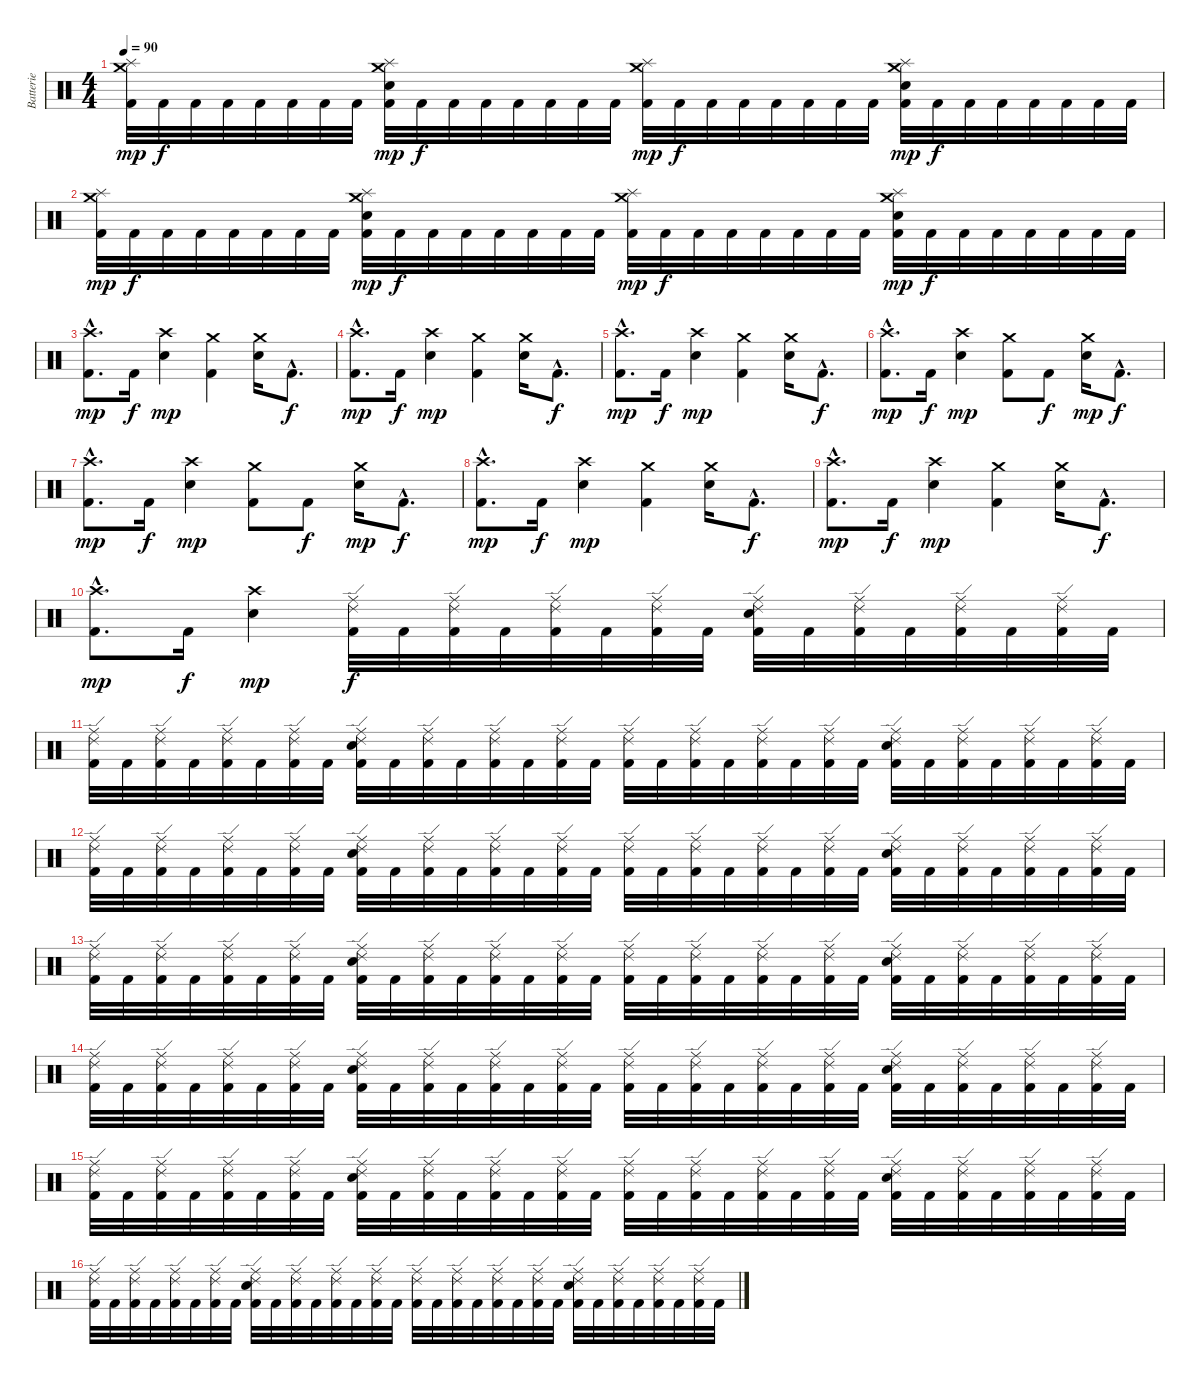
\track ("Batterie" "Batterie") {instrument percussion}
\staff {score}
\articulation defaults
\ts (4 4)
\tempo 90
\clef neutral
\ks c
("Splash (hit)" "Crash medium (hit)" "Kick (hit) 2").32{dy mp} "Kick (hit) 2".32{dy f} "Kick (hit) 2".32 "Kick (hit) 2".32 "Kick (hit) 2".32 "Kick (hit) 2".32 "Kick (hit) 2".32 "Kick (hit) 2".32 ("Splash (hit)" "Crash medium (hit)" "Electric Snare (hit)" "Kick (hit) 2").32{dy mp} "Kick (hit) 2".32{dy f} "Kick (hit) 2".32 "Kick (hit) 2".32 "Kick (hit) 2".32 "Kick (hit) 2".32 "Kick (hit) 2".32 "Kick (hit) 2".32 ("Splash (hit)" "Crash medium (hit)" "Kick (hit) 2").32{dy mp} "Kick (hit) 2".32{dy f} "Kick (hit) 2".32 "Kick (hit) 2".32 "Kick (hit) 2".32 "Kick (hit) 2".32 "Kick (hit) 2".32 "Kick (hit) 2".32 ("Splash (hit)" "Crash medium (hit)" "Electric Snare (hit)" "Kick (hit) 2").32{dy mp} "Kick (hit) 2".32{dy f} "Kick (hit) 2".32 "Kick (hit) 2".32 "Kick (hit) 2".32 "Kick (hit) 2".32 "Kick (hit) 2".32 "Kick (hit) 2".32 |
("Splash (hit)" "Crash medium (hit)" "Kick (hit) 2").32{dy mp} "Kick (hit) 2".32{dy f} "Kick (hit) 2".32 "Kick (hit) 2".32 "Kick (hit) 2".32 "Kick (hit) 2".32 "Kick (hit) 2".32 "Kick (hit) 2".32 ("Splash (hit)" "Crash medium (hit)" "Electric Snare (hit)" "Kick (hit) 2").32{dy mp} "Kick (hit) 2".32{dy f} "Kick (hit) 2".32 "Kick (hit) 2".32 "Kick (hit) 2".32 "Kick (hit) 2".32 "Kick (hit) 2".32 "Kick (hit) 2".32 ("Splash (hit)" "Crash medium (hit)" "Kick (hit) 2").32{dy mp} "Kick (hit) 2".32{dy f} "Kick (hit) 2".32 "Kick (hit) 2".32 "Kick (hit) 2".32 "Kick (hit) 2".32 "Kick (hit) 2".32 "Kick (hit) 2".32 ("Splash (hit)" "Crash medium (hit)" "Electric Snare (hit)" "Kick (hit) 2").32{dy mp} "Kick (hit) 2".32{dy f} "Kick (hit) 2".32 "Kick (hit) 2".32 "Kick (hit) 2".32 "Kick (hit) 2".32 "Kick (hit) 2".32 "Kick (hit) 2".32 |
("Crash high (hit)"{hac} "Kick (hit) 2"{hac}).8{d dy mp} "Kick (hit) 2".16{dy f} ("Crash high (hit)" "Electric Snare (hit)").4{dy mp} ("Crash medium (hit)" "Kick (hit) 2").4 ("Crash medium (hit)" "Electric Snare (hit)").16 "Kick (hit) 2"{hac}.8{d dy f} |
("Crash high (hit)"{hac} "Kick (hit) 2"{hac}).8{d dy mp} "Kick (hit) 2".16{dy f} ("Crash high (hit)" "Electric Snare (hit)").4{dy mp} ("Crash medium (hit)" "Kick (hit) 2").4 ("Crash medium (hit)" "Electric Snare (hit)").16 "Kick (hit) 2"{hac}.8{d dy f} |
("Crash high (hit)"{hac} "Kick (hit) 2"{hac}).8{d dy mp} "Kick (hit) 2".16{dy f} ("Crash high (hit)" "Electric Snare (hit)").4{dy mp} ("Crash medium (hit)" "Kick (hit) 2").4 ("Crash medium (hit)" "Electric Snare (hit)").16 "Kick (hit) 2"{hac}.8{d dy f} |
("Crash high (hit)"{hac} "Kick (hit) 2"{hac}).8{d dy mp} "Kick (hit) 2".16{dy f} ("Crash high (hit)" "Electric Snare (hit)").4{dy mp} ("Crash medium (hit)" "Kick (hit) 2").8 "Kick (hit) 2".8{dy f} ("Crash medium (hit)" "Electric Snare (hit)").16{dy mp} "Kick (hit) 2"{hac}.8{d dy f} |
("Crash high (hit)"{hac} "Kick (hit) 2"{hac}).8{d dy mp} "Kick (hit) 2".16{dy f} ("Crash high (hit)" "Electric Snare (hit)").4{dy mp} ("Crash medium (hit)" "Kick (hit) 2").8 "Kick (hit) 2".8{dy f} ("Crash medium (hit)" "Electric Snare (hit)").16{dy mp} "Kick (hit) 2"{hac}.8{d dy f} |
("Crash high (hit)"{hac} "Kick (hit) 2"{hac}).8{d dy mp} "Kick (hit) 2".16{dy f} ("Crash high (hit)" "Electric Snare (hit)").4{dy mp} ("Crash medium (hit)" "Kick (hit) 2").4 ("Crash medium (hit)" "Electric Snare (hit)").16 "Kick (hit) 2"{hac}.8{d dy f} |
("Crash high (hit)"{hac} "Kick (hit) 2"{hac}).8{d dy mp} "Kick (hit) 2".16{dy f} ("Crash high (hit)" "Electric Snare (hit)").4{dy mp} ("Crash medium (hit)" "Kick (hit) 2").4 ("Crash medium (hit)" "Electric Snare (hit)").16 "Kick (hit) 2"{hac}.8{d dy f} |
("Crash high (hit)"{hac} "Kick (hit) 2"{hac}).8{d dy mp} "Kick (hit) 2".16{dy f} ("Crash high (hit)" "Electric Snare (hit)").4{dy mp} ("Ride (edge) 2" "Ride (middle)" "Kick (hit) 2").32{dy f} "Kick (hit) 2".32 ("Ride (edge) 2" "Ride (middle)" "Kick (hit) 2").32 "Kick (hit) 2".32 ("Ride (edge) 2" "Ride (middle)" "Kick (hit) 2").32 "Kick (hit) 2".32 ("Ride (edge) 2" "Ride (middle)" "Kick (hit) 2").32 "Kick (hit) 2".32 ("Ride (edge) 2" "Ride (middle)" "Electric Snare (hit)" "Kick (hit) 2").32 "Kick (hit) 2".32 ("Ride (edge) 2" "Ride (middle)" "Kick (hit) 2").32 "Kick (hit) 2".32 ("Ride (edge) 2" "Ride (middle)" "Kick (hit) 2").32 "Kick (hit) 2".32 ("Ride (edge) 2" "Ride (middle)" "Kick (hit) 2").32 "Kick (hit) 2".32 |
("Ride (edge) 2" "Ride (middle)" "Kick (hit) 2").32 "Kick (hit) 2".32 ("Ride (edge) 2" "Ride (middle)" "Kick (hit) 2").32 "Kick (hit) 2".32 ("Ride (edge) 2" "Ride (middle)" "Kick (hit) 2").32 "Kick (hit) 2".32 ("Ride (edge) 2" "Ride (middle)" "Kick (hit) 2").32 "Kick (hit) 2".32 ("Ride (edge) 2" "Ride (middle)" "Electric Snare (hit)" "Kick (hit) 2").32 "Kick (hit) 2".32 ("Ride (edge) 2" "Ride (middle)" "Kick (hit) 2").32 "Kick (hit) 2".32 ("Ride (edge) 2" "Ride (middle)" "Kick (hit) 2").32 "Kick (hit) 2".32 ("Ride (edge) 2" "Ride (middle)" "Kick (hit) 2").32 "Kick (hit) 2".32 ("Ride (edge) 2" "Ride (middle)" "Kick (hit) 2").32 "Kick (hit) 2".32 ("Ride (edge) 2" "Ride (middle)" "Kick (hit) 2").32 "Kick (hit) 2".32 ("Ride (edge) 2" "Ride (middle)" "Kick (hit) 2").32 "Kick (hit) 2".32 ("Ride (edge) 2" "Ride (middle)" "Kick (hit) 2").32 "Kick (hit) 2".32 ("Ride (edge) 2" "Ride (middle)" "Electric Snare (hit)" "Kick (hit) 2").32 "Kick (hit) 2".32 ("Ride (edge) 2" "Ride (middle)" "Kick (hit) 2").32 "Kick (hit) 2".32 ("Ride (edge) 2" "Ride (middle)" "Kick (hit) 2").32 "Kick (hit) 2".32 ("Ride (edge) 2" "Ride (middle)" "Kick (hit) 2").32 "Kick (hit) 2".32 |
("Ride (edge) 2" "Ride (middle)" "Kick (hit) 2").32 "Kick (hit) 2".32 ("Ride (edge) 2" "Ride (middle)" "Kick (hit) 2").32 "Kick (hit) 2".32 ("Ride (edge) 2" "Ride (middle)" "Kick (hit) 2").32 "Kick (hit) 2".32 ("Ride (edge) 2" "Ride (middle)" "Kick (hit) 2").32 "Kick (hit) 2".32 ("Ride (edge) 2" "Ride (middle)" "Electric Snare (hit)" "Kick (hit) 2").32 "Kick (hit) 2".32 ("Ride (edge) 2" "Ride (middle)" "Kick (hit) 2").32 "Kick (hit) 2".32 ("Ride (edge) 2" "Ride (middle)" "Kick (hit) 2").32 "Kick (hit) 2".32 ("Ride (edge) 2" "Ride (middle)" "Kick (hit) 2").32 "Kick (hit) 2".32 ("Ride (edge) 2" "Ride (middle)" "Kick (hit) 2").32 "Kick (hit) 2".32 ("Ride (edge) 2" "Ride (middle)" "Kick (hit) 2").32 "Kick (hit) 2".32 ("Ride (edge) 2" "Ride (middle)" "Kick (hit) 2").32 "Kick (hit) 2".32 ("Ride (edge) 2" "Ride (middle)" "Kick (hit) 2").32 "Kick (hit) 2".32 ("Ride (edge) 2" "Ride (middle)" "Electric Snare (hit)" "Kick (hit) 2").32 "Kick (hit) 2".32 ("Ride (edge) 2" "Ride (middle)" "Kick (hit) 2").32 "Kick (hit) 2".32 ("Ride (edge) 2" "Ride (middle)" "Kick (hit) 2").32 "Kick (hit) 2".32 ("Ride (edge) 2" "Ride (middle)" "Kick (hit) 2").32 "Kick (hit) 2".32 |
("Ride (edge) 2" "Ride (middle)" "Kick (hit) 2").32 "Kick (hit) 2".32 ("Ride (edge) 2" "Ride (middle)" "Kick (hit) 2").32 "Kick (hit) 2".32 ("Ride (edge) 2" "Ride (middle)" "Kick (hit) 2").32 "Kick (hit) 2".32 ("Ride (edge) 2" "Ride (middle)" "Kick (hit) 2").32 "Kick (hit) 2".32 ("Ride (edge) 2" "Ride (middle)" "Electric Snare (hit)" "Kick (hit) 2").32 "Kick (hit) 2".32 ("Ride (edge) 2" "Ride (middle)" "Kick (hit) 2").32 "Kick (hit) 2".32 ("Ride (edge) 2" "Ride (middle)" "Kick (hit) 2").32 "Kick (hit) 2".32 ("Ride (edge) 2" "Ride (middle)" "Kick (hit) 2").32 "Kick (hit) 2".32 ("Ride (edge) 2" "Ride (middle)" "Kick (hit) 2").32 "Kick (hit) 2".32 ("Ride (edge) 2" "Ride (middle)" "Kick (hit) 2").32 "Kick (hit) 2".32 ("Ride (edge) 2" "Ride (middle)" "Kick (hit) 2").32 "Kick (hit) 2".32 ("Ride (edge) 2" "Ride (middle)" "Kick (hit) 2").32 "Kick (hit) 2".32 ("Ride (edge) 2" "Ride (middle)" "Electric Snare (hit)" "Kick (hit) 2").32 "Kick (hit) 2".32 ("Ride (edge) 2" "Ride (middle)" "Kick (hit) 2").32 "Kick (hit) 2".32 ("Ride (edge) 2" "Ride (middle)" "Kick (hit) 2").32 "Kick (hit) 2".32 ("Ride (edge) 2" "Ride (middle)" "Kick (hit) 2").32 "Kick (hit) 2".32 |
("Ride (edge) 2" "Ride (middle)" "Kick (hit) 2").32 "Kick (hit) 2".32 ("Ride (edge) 2" "Ride (middle)" "Kick (hit) 2").32 "Kick (hit) 2".32 ("Ride (edge) 2" "Ride (middle)" "Kick (hit) 2").32 "Kick (hit) 2".32 ("Ride (edge) 2" "Ride (middle)" "Kick (hit) 2").32 "Kick (hit) 2".32 ("Ride (edge) 2" "Ride (middle)" "Electric Snare (hit)" "Kick (hit) 2").32 "Kick (hit) 2".32 ("Ride (edge) 2" "Ride (middle)" "Kick (hit) 2").32 "Kick (hit) 2".32 ("Ride (edge) 2" "Ride (middle)" "Kick (hit) 2").32 "Kick (hit) 2".32 ("Ride (edge) 2" "Ride (middle)" "Kick (hit) 2").32 "Kick (hit) 2".32 ("Ride (edge) 2" "Ride (middle)" "Kick (hit) 2").32 "Kick (hit) 2".32 ("Ride (edge) 2" "Ride (middle)" "Kick (hit) 2").32 "Kick (hit) 2".32 ("Ride (edge) 2" "Ride (middle)" "Kick (hit) 2").32 "Kick (hit) 2".32 ("Ride (edge) 2" "Ride (middle)" "Kick (hit) 2").32 "Kick (hit) 2".32 ("Ride (edge) 2" "Ride (middle)" "Electric Snare (hit)" "Kick (hit) 2").32 "Kick (hit) 2".32 ("Ride (edge) 2" "Ride (middle)" "Kick (hit) 2").32 "Kick (hit) 2".32 ("Ride (edge) 2" "Ride (middle)" "Kick (hit) 2").32 "Kick (hit) 2".32 ("Ride (edge) 2" "Ride (middle)" "Kick (hit) 2").32 "Kick (hit) 2".32 |
("Ride (edge) 2" "Ride (middle)" "Kick (hit) 2").32 "Kick (hit) 2".32 ("Ride (edge) 2" "Ride (middle)" "Kick (hit) 2").32 "Kick (hit) 2".32 ("Ride (edge) 2" "Ride (middle)" "Kick (hit) 2").32 "Kick (hit) 2".32 ("Ride (edge) 2" "Ride (middle)" "Kick (hit) 2").32 "Kick (hit) 2".32 ("Ride (edge) 2" "Ride (middle)" "Electric Snare (hit)" "Kick (hit) 2").32 "Kick (hit) 2".32 ("Ride (edge) 2" "Ride (middle)" "Kick (hit) 2").32 "Kick (hit) 2".32 ("Ride (edge) 2" "Ride (middle)" "Kick (hit) 2").32 "Kick (hit) 2".32 ("Ride (edge) 2" "Ride (middle)" "Kick (hit) 2").32 "Kick (hit) 2".32 ("Ride (edge) 2" "Ride (middle)" "Kick (hit) 2").32 "Kick (hit) 2".32 ("Ride (edge) 2" "Ride (middle)" "Kick (hit) 2").32 "Kick (hit) 2".32 ("Ride (edge) 2" "Ride (middle)" "Kick (hit) 2").32 "Kick (hit) 2".32 ("Ride (edge) 2" "Ride (middle)" "Kick (hit) 2").32 "Kick (hit) 2".32 ("Ride (edge) 2" "Ride (middle)" "Electric Snare (hit)" "Kick (hit) 2").32 "Kick (hit) 2".32 ("Ride (edge) 2" "Ride (middle)" "Kick (hit) 2").32 "Kick (hit) 2".32 ("Ride (edge) 2" "Ride (middle)" "Kick (hit) 2").32 "Kick (hit) 2".32 ("Ride (edge) 2" "Ride (middle)" "Kick (hit) 2").32 "Kick (hit) 2".32 |
("Ride (edge) 2" "Ride (middle)" "Kick (hit) 2").32 "Kick (hit) 2".32 ("Ride (edge) 2" "Ride (middle)" "Kick (hit) 2").32 "Kick (hit) 2".32 ("Ride (edge) 2" "Ride (middle)" "Kick (hit) 2").32 "Kick (hit) 2".32 ("Ride (edge) 2" "Ride (middle)" "Kick (hit) 2").32 "Kick (hit) 2".32 ("Ride (edge) 2" "Ride (middle)" "Electric Snare (hit)" "Kick (hit) 2").32 "Kick (hit) 2".32 ("Ride (edge) 2" "Ride (middle)" "Kick (hit) 2").32 "Kick (hit) 2".32 ("Ride (edge) 2" "Ride (middle)" "Kick (hit) 2").32 "Kick (hit) 2".32 ("Ride (edge) 2" "Ride (middle)" "Kick (hit) 2").32 "Kick (hit) 2".32 ("Ride (edge) 2" "Ride (middle)" "Kick (hit) 2").32 "Kick (hit) 2".32 ("Ride (edge) 2" "Ride (middle)" "Kick (hit) 2").32 "Kick (hit) 2".32 ("Ride (edge) 2" "Ride (middle)" "Kick (hit) 2").32 "Kick (hit) 2".32 ("Ride (edge) 2" "Ride (middle)" "Kick (hit) 2").32 "Kick (hit) 2".32 ("Ride (edge) 2" "Ride (middle)" "Electric Snare (hit)" "Kick (hit) 2").32 "Kick (hit) 2".32 ("Ride (edge) 2" "Ride (middle)" "Kick (hit) 2").32 "Kick (hit) 2".32 ("Ride (edge) 2" "Ride (middle)" "Kick (hit) 2").32 "Kick (hit) 2".32 ("Ride (edge) 2" "Ride (middle)" "Kick (hit) 2").32 "Kick (hit) 2".32
